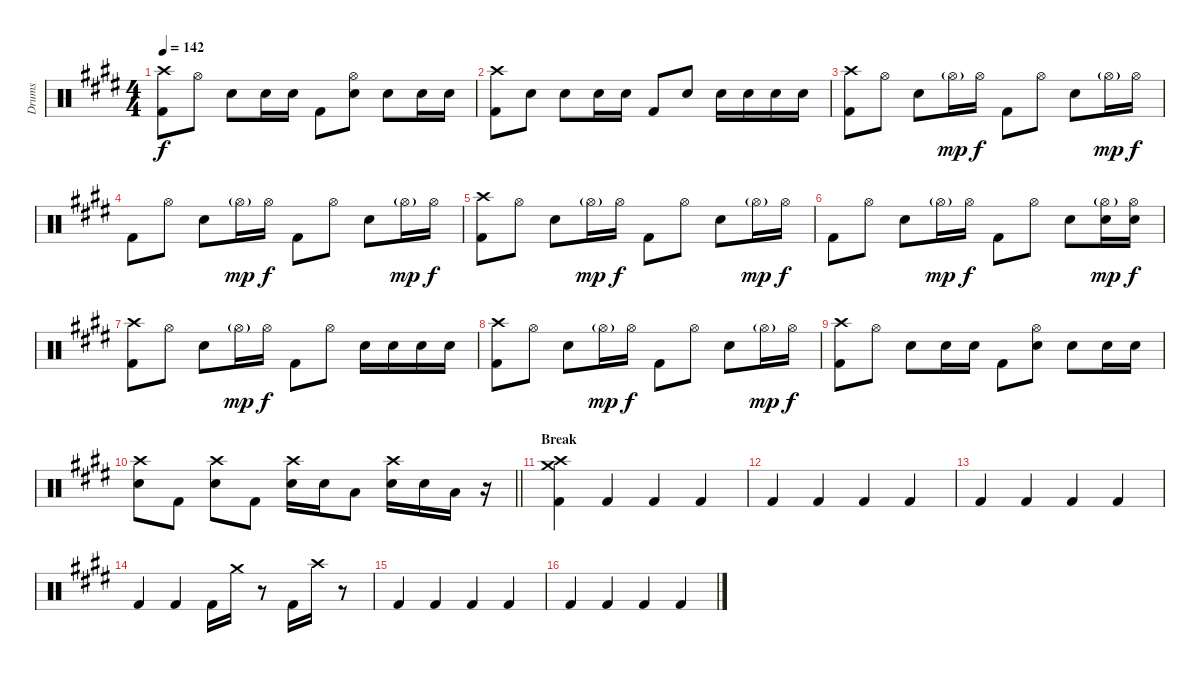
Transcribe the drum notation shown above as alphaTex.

\track ("Drums" "Drums") {instrument percussion}
\staff {score}
\articulation defaults
\ts (4 4)
\tempo 142
\clef neutral
\ks e
("Crash high (hit)" "Kick (hit) 2").8{dy f} "Hi-Hat (open)".8 "Electric Snare (hit)".8 "Electric Snare (hit)".16 "Electric Snare (hit)".16 "Kick (hit) 2".8 ("Hi-Hat (open)" "Electric Snare (hit)").8 "Electric Snare (hit)".8 "Electric Snare (hit)".16 "Electric Snare (hit)".16 |
("Crash high (hit)" "Kick (hit) 2").8 "Electric Snare (hit)".8 "Electric Snare (hit)".8 "Electric Snare (hit)".16 "Electric Snare (hit)".16 "Kick (hit) 2".8 "Electric Snare (hit)".8 "Electric Snare (hit)".16 "Electric Snare (hit)".16 "Electric Snare (hit)".16 "Electric Snare (hit)".16 |
("Crash high (hit)" "Kick (hit) 2").8 "Hi-Hat (open)".8 "Electric Snare (hit)".8 "Hi-Hat (open)"{g}.16{dy mp} "Hi-Hat (open)".16{dy f} "Kick (hit) 2".8 "Hi-Hat (open)".8 "Electric Snare (hit)".8 "Hi-Hat (open)"{g}.16{dy mp} "Hi-Hat (open)".16{dy f} |
"Kick (hit) 2".8 "Hi-Hat (open)".8 "Electric Snare (hit)".8 "Hi-Hat (open)"{g}.16{dy mp} "Hi-Hat (open)".16{dy f} "Kick (hit) 2".8 "Hi-Hat (open)".8 "Electric Snare (hit)".8 "Hi-Hat (open)"{g}.16{dy mp} "Hi-Hat (open)".16{dy f} |
("Crash high (hit)" "Kick (hit) 2").8 "Hi-Hat (open)".8 "Electric Snare (hit)".8 "Hi-Hat (open)"{g}.16{dy mp} "Hi-Hat (open)".16{dy f} "Kick (hit) 2".8 "Hi-Hat (open)".8 "Electric Snare (hit)".8 "Hi-Hat (open)"{g}.16{dy mp} "Hi-Hat (open)".16{dy f} |
"Kick (hit) 2".8 "Hi-Hat (open)".8 "Electric Snare (hit)".8 "Hi-Hat (open)"{g}.16{dy mp} "Hi-Hat (open)".16{dy f} "Kick (hit) 2".8 "Hi-Hat (open)".8 "Electric Snare (hit)".8 ("Hi-Hat (open)"{g} "Electric Snare (hit)").16{dy mp} ("Hi-Hat (open)" "Electric Snare (hit)").16{dy f} |
("Crash high (hit)" "Kick (hit) 2").8 "Hi-Hat (open)".8 "Electric Snare (hit)".8 "Hi-Hat (open)"{g}.16{dy mp} "Hi-Hat (open)".16{dy f} "Kick (hit) 2".8 "Hi-Hat (open)".8 "Electric Snare (hit)".16 "Electric Snare (hit)".16 "Electric Snare (hit)".16 "Electric Snare (hit)".16 |
("Crash high (hit)" "Kick (hit) 2").8 "Hi-Hat (open)".8 "Electric Snare (hit)".8 "Hi-Hat (open)"{g}.16{dy mp} "Hi-Hat (open)".16{dy f} "Kick (hit) 2".8 "Hi-Hat (open)".8 "Electric Snare (hit)".8 "Hi-Hat (open)"{g}.16{dy mp} "Hi-Hat (open)".16{dy f} |
("Crash high (hit)" "Kick (hit) 2").8 "Hi-Hat (open)".8 "Electric Snare (hit)".8 "Electric Snare (hit)".16 "Electric Snare (hit)".16 "Kick (hit) 2".8 ("Hi-Hat (open)" "Electric Snare (hit)").8 "Electric Snare (hit)".8 "Electric Snare (hit)".16 "Electric Snare (hit)".16 |
\barLineRight lightlight
("Crash high (hit)" "Electric Snare (hit)").8 "Kick (hit) 2".8 ("Crash high (hit)" "Electric Snare (hit)").8 "Kick (hit) 2".8 ("Crash high (hit)" "Electric Snare (hit)").16 "Electric Snare (hit)".16 "Low Tom (hit)".8 ("Crash high (hit)" "Electric Snare (hit)").16 "Electric Snare (hit)".16 "Low Tom (hit)".16 r.16 |
\section ("" "Break")
("Crash high (hit)" "Crash medium (hit)" "Kick (hit) 2").4 "Kick (hit) 2".4 "Kick (hit) 2".4 "Kick (hit) 2".4 |
"Kick (hit) 2".4 "Kick (hit) 2".4 "Kick (hit) 2".4 "Kick (hit) 2".4 |
"Kick (hit) 2".4 "Kick (hit) 2".4 "Kick (hit) 2".4 "Kick (hit) 2".4 |
"Kick (hit) 2".4 "Kick (hit) 2".4 "Kick (hit) 2".16 "Crash medium (hit)".16 r.8 "Kick (hit) 2".16 "Crash high (hit)".16 r.8 |
"Kick (hit) 2".4 "Kick (hit) 2".4 "Kick (hit) 2".4 "Kick (hit) 2".4 |
"Kick (hit) 2".4 "Kick (hit) 2".4 "Kick (hit) 2".4 "Kick (hit) 2".4
